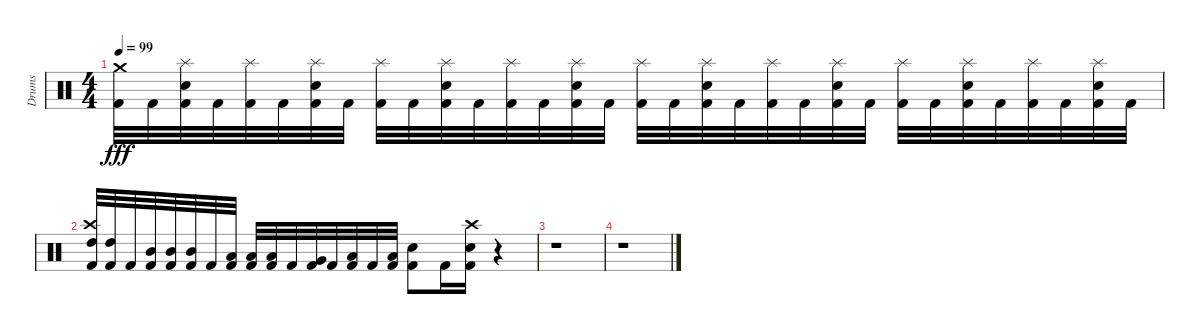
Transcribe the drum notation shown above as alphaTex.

\track ("Drums" "Drums") {instrument percussion}
\staff {score}
\articulation defaults
\ts (4 4)
\tempo 99
\clef neutral
\ks c
("Crash medium (hit)" "Kick (hit) 2").32{dy fff} "Kick (hit) 2".32 ("Splash (hit)" "Snare (hit) 2" "Kick (hit) 2").32 "Kick (hit) 2".32 ("Splash (hit)" "Kick (hit) 2").32 "Kick (hit) 2".32 ("Splash (hit)" "Snare (hit) 2" "Kick (hit) 2").32 "Kick (hit) 2".32 ("Splash (hit)" "Kick (hit) 2").32 "Kick (hit) 2".32 ("Splash (hit)" "Snare (hit) 2" "Kick (hit) 2").32 "Kick (hit) 2".32 ("Splash (hit)" "Kick (hit) 2").32 "Kick (hit) 2".32 ("Splash (hit)" "Snare (hit) 2" "Kick (hit) 2").32 "Kick (hit) 2".32 ("Splash (hit)" "Kick (hit) 2").32 "Kick (hit) 2".32 ("Splash (hit)" "Snare (hit) 2" "Kick (hit) 2").32 "Kick (hit) 2".32 ("Splash (hit)" "Kick (hit) 2").32 "Kick (hit) 2".32 ("Splash (hit)" "Snare (hit) 2" "Kick (hit) 2").32 "Kick (hit) 2".32 ("Splash (hit)" "Kick (hit) 2").32 "Kick (hit) 2".32 ("Splash (hit)" "Snare (hit) 2" "Kick (hit) 2").32 "Kick (hit) 2".32 ("Splash (hit)" "Kick (hit) 2").32 "Kick (hit) 2".32 ("Splash (hit)" "Snare (hit) 2" "Kick (hit) 2").32 "Kick (hit) 2".32 |
("Crash high (hit)" "High Tom (hit)" "Kick (hit) 2").32 ("High Tom (hit)" "Kick (hit) 2").32 "Kick (hit) 2".32 ("Mid Tom (hit)" "Kick (hit) 2").32 ("Mid Tom (hit)" "Kick (hit) 2").32 ("Mid Tom (hit)" "Kick (hit) 2").32 "Kick (hit) 2".32 ("Low Tom (hit)" "Kick (hit) 2").32 ("Low Tom (hit)" "Kick (hit) 2").32 ("Low Tom (hit)" "Kick (hit) 2").32 "Kick (hit) 2".32 ("Very Low Tom (hit)" "Kick (hit) 2").32 "Kick (hit) 2".32 ("Low Floor Tom (hit)" "Kick (hit) 2").32 "Kick (hit) 2".32 ("Low Floor Tom (hit)" "Kick (hit) 2").32 ("Snare (hit) 2" "Kick (hit) 2").8 "Kick (hit) 2".16 ("Crash high (hit)" "Snare (hit) 2" "Kick (hit) 2").16 r.4 |
r.1 |
r.1
